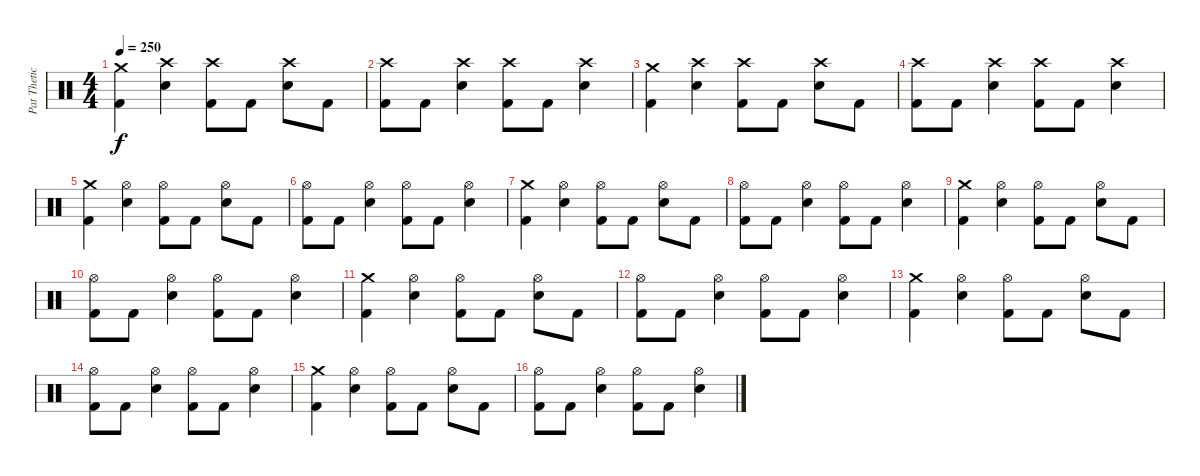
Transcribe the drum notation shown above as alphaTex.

\track ("Pat Thetic" "Pat Thetic") {instrument percussion}
\staff {score}
\articulation defaults
\ts (4 4)
\tempo 250
\clef neutral
\ks c
("Crash medium (hit)" "Kick (hit) 2").4{dy f} ("Crash high (hit)" "Snare (hit) 2").4 ("Crash high (hit)" "Kick (hit) 2").8 "Kick (hit) 2".8 ("Crash high (hit)" "Snare (hit) 2").8 "Kick (hit) 2".8 |
("Crash high (hit)" "Kick (hit) 2").8 "Kick (hit) 2".8 ("Crash high (hit)" "Snare (hit) 2").4 ("Crash high (hit)" "Kick (hit) 2").8 "Kick (hit) 2".8 ("Crash high (hit)" "Snare (hit) 2").4 |
("Crash medium (hit)" "Kick (hit) 2").4 ("Crash high (hit)" "Snare (hit) 2").4 ("Crash high (hit)" "Kick (hit) 2").8 "Kick (hit) 2".8 ("Crash high (hit)" "Snare (hit) 2").8 "Kick (hit) 2".8 |
("Crash high (hit)" "Kick (hit) 2").8 "Kick (hit) 2".8 ("Crash high (hit)" "Snare (hit) 2").4 ("Crash high (hit)" "Kick (hit) 2").8 "Kick (hit) 2".8 ("Crash high (hit)" "Snare (hit) 2").4 |
("Crash medium (hit)" "Kick (hit) 2").4 ("Hi-Hat (open)" "Snare (hit) 2").4 ("Hi-Hat (open)" "Kick (hit) 2").8 "Kick (hit) 2".8 ("Hi-Hat (open)" "Snare (hit) 2").8 "Kick (hit) 2".8 |
("Hi-Hat (open)" "Kick (hit) 2").8 "Kick (hit) 2".8 ("Hi-Hat (open)" "Snare (hit) 2").4 ("Hi-Hat (open)" "Kick (hit) 2").8 "Kick (hit) 2".8 ("Hi-Hat (open)" "Snare (hit) 2").4 |
("Crash medium (hit)" "Kick (hit) 2").4 ("Hi-Hat (open)" "Snare (hit) 2").4 ("Hi-Hat (open)" "Kick (hit) 2").8 "Kick (hit) 2".8 ("Hi-Hat (open)" "Snare (hit) 2").8 "Kick (hit) 2".8 |
("Hi-Hat (open)" "Kick (hit) 2").8 "Kick (hit) 2".8 ("Hi-Hat (open)" "Snare (hit) 2").4 ("Hi-Hat (open)" "Kick (hit) 2").8 "Kick (hit) 2".8 ("Hi-Hat (open)" "Snare (hit) 2").4 |
("Crash medium (hit)" "Kick (hit) 2").4 ("Hi-Hat (open)" "Snare (hit) 2").4 ("Hi-Hat (open)" "Kick (hit) 2").8 "Kick (hit) 2".8 ("Hi-Hat (open)" "Snare (hit) 2").8 "Kick (hit) 2".8 |
("Hi-Hat (open)" "Kick (hit) 2").8 "Kick (hit) 2".8 ("Hi-Hat (open)" "Snare (hit) 2").4 ("Hi-Hat (open)" "Kick (hit) 2").8 "Kick (hit) 2".8 ("Hi-Hat (open)" "Snare (hit) 2").4 |
("Crash medium (hit)" "Kick (hit) 2").4 ("Hi-Hat (open)" "Snare (hit) 2").4 ("Hi-Hat (open)" "Kick (hit) 2").8 "Kick (hit) 2".8 ("Hi-Hat (open)" "Snare (hit) 2").8 "Kick (hit) 2".8 |
("Hi-Hat (open)" "Kick (hit) 2").8 "Kick (hit) 2".8 ("Hi-Hat (open)" "Snare (hit) 2").4 ("Hi-Hat (open)" "Kick (hit) 2").8 "Kick (hit) 2".8 ("Hi-Hat (open)" "Snare (hit) 2").4 |
("Crash medium (hit)" "Kick (hit) 2").4 ("Hi-Hat (open)" "Snare (hit) 2").4 ("Hi-Hat (open)" "Kick (hit) 2").8 "Kick (hit) 2".8 ("Hi-Hat (open)" "Snare (hit) 2").8 "Kick (hit) 2".8 |
("Hi-Hat (open)" "Kick (hit) 2").8 "Kick (hit) 2".8 ("Hi-Hat (open)" "Snare (hit) 2").4 ("Hi-Hat (open)" "Kick (hit) 2").8 "Kick (hit) 2".8 ("Hi-Hat (open)" "Snare (hit) 2").4 |
("Crash medium (hit)" "Kick (hit) 2").4 ("Hi-Hat (open)" "Snare (hit) 2").4 ("Hi-Hat (open)" "Kick (hit) 2").8 "Kick (hit) 2".8 ("Hi-Hat (open)" "Snare (hit) 2").8 "Kick (hit) 2".8 |
("Hi-Hat (open)" "Kick (hit) 2").8 "Kick (hit) 2".8 ("Hi-Hat (open)" "Snare (hit) 2").4 ("Hi-Hat (open)" "Kick (hit) 2").8 "Kick (hit) 2".8 ("Hi-Hat (open)" "Snare (hit) 2").4
